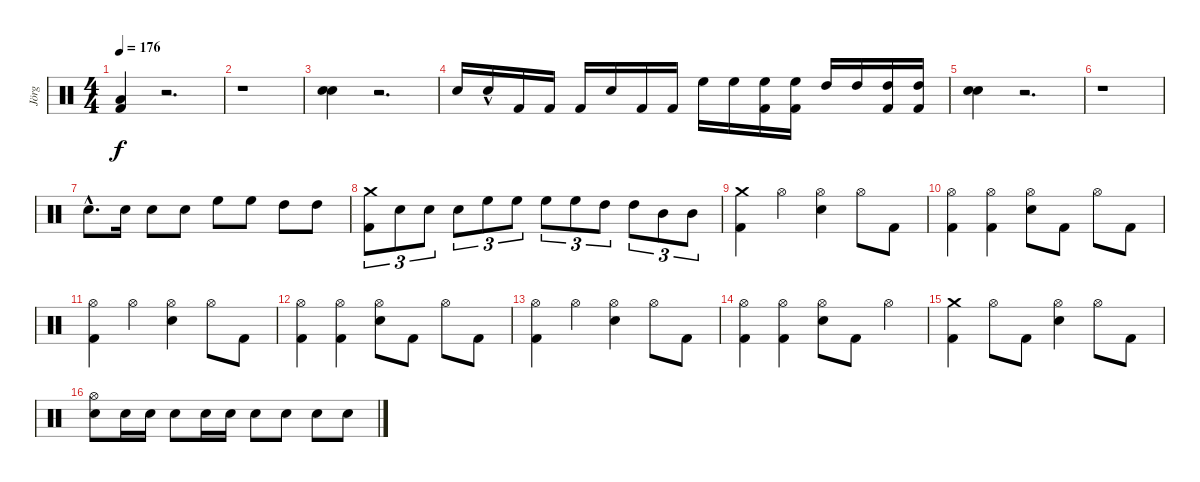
\track ("Jörg" "Jörg") {instrument percussion}
\staff {score}
\articulation defaults
\ts (4 4)
\tempo 176
\clef neutral
\ks c
("Low Tom (hit)" "Kick (hit) 2").4{dy f} r.2{d} |
r.1 |
("Snare (hit) 2" "Snare (hit) 2").4 r.2{d} |
"Snare (hit) 2".16 "Snare (hit) 2"{hac}.16 "Kick (hit) 2".16 "Kick (hit) 2".16 "Kick (hit) 2".16 "Snare (hit) 2".16 "Kick (hit) 2".16 "Kick (hit) 2".16 "High Floor Tom (hit)".16 "High Floor Tom (hit)".16 ("High Floor Tom (hit)" "Kick (hit) 2").16 ("High Floor Tom (hit)" "Kick (hit) 2").16 "High Tom (hit)".16 "High Tom (hit)".16 ("High Tom (hit)" "Kick (hit) 2").16 ("High Tom (hit)" "Kick (hit) 2").16 |
("Snare (hit) 2" "Snare (hit) 2").4 r.2{d} |
r.1 |
"Snare (hit) 2"{hac}.8{d} "Snare (hit) 2".16 "Snare (hit) 2".8 "Snare (hit) 2".8 "High Floor Tom (hit)".8 "High Floor Tom (hit)".8 "High Tom (hit)".8 "High Tom (hit)".8 |
("Kick (hit) 2" "Crash medium (hit)").8{tu (3 2)} "Snare (hit) 2".8{tu (3 2)} "Snare (hit) 2".8{tu (3 2)} "Snare (hit) 2".8{tu (3 2)} "High Floor Tom (hit)".8{tu (3 2)} "High Floor Tom (hit)".8{tu (3 2)} "High Floor Tom (hit)".8{tu (3 2)} "High Floor Tom (hit)".8{tu (3 2)} "High Tom (hit)".8{tu (3 2)} "High Tom (hit)".8{tu (3 2)} "Mid Tom (hit)".8{tu (3 2)} "Mid Tom (hit)".8{tu (3 2)} |
("Kick (hit) 2" "Crash medium (hit)").4 "Hi-Hat (open)".4 ("Snare (hit) 2" "Hi-Hat (open)").4 "Hi-Hat (open)".8 "Kick (hit) 2".8 |
("Kick (hit) 2" "Hi-Hat (open)").4 ("Kick (hit) 2" "Hi-Hat (open)").4 ("Snare (hit) 2" "Hi-Hat (open)").8 "Kick (hit) 2".8 "Hi-Hat (open)".8 "Kick (hit) 2".8 |
("Kick (hit) 2" "Hi-Hat (open)").4 "Hi-Hat (open)".4 ("Snare (hit) 2" "Hi-Hat (open)").4 "Hi-Hat (open)".8 "Kick (hit) 2".8 |
("Kick (hit) 2" "Hi-Hat (open)").4 ("Kick (hit) 2" "Hi-Hat (open)").4 ("Snare (hit) 2" "Hi-Hat (open)").8 "Kick (hit) 2".8 "Hi-Hat (open)".8 "Kick (hit) 2".8 |
("Kick (hit) 2" "Hi-Hat (open)").4 "Hi-Hat (open)".4 ("Snare (hit) 2" "Hi-Hat (open)").4 "Hi-Hat (open)".8 "Kick (hit) 2".8 |
("Kick (hit) 2" "Hi-Hat (open)").4 ("Kick (hit) 2" "Hi-Hat (open)").4 ("Snare (hit) 2" "Hi-Hat (open)").8 "Kick (hit) 2".8 "Hi-Hat (open)".4 |
("Kick (hit) 2" "Crash medium (hit)").4 "Hi-Hat (open)".8 "Kick (hit) 2".8 ("Snare (hit) 2" "Hi-Hat (open)").4 "Hi-Hat (open)".8 "Kick (hit) 2".8 |
("Snare (hit) 2" "Hi-Hat (open)").8 "Snare (hit) 2".16 "Snare (hit) 2".16 "Snare (hit) 2".8 "Snare (hit) 2".16 "Snare (hit) 2".16 "Snare (hit) 2".8 "Snare (hit) 2".8 "Snare (hit) 2".8 "Snare (hit) 2".8
